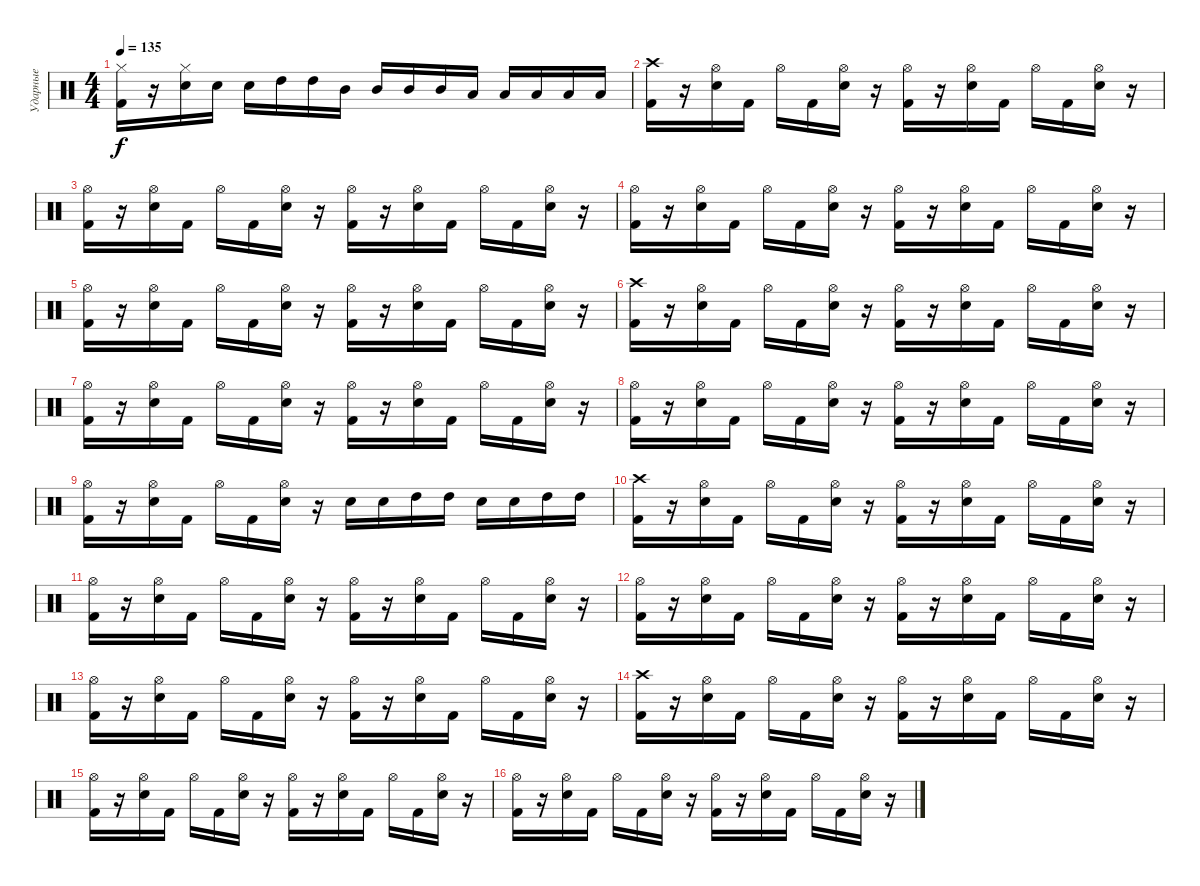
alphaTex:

\track ("Ударные" "Ударные") {instrument percussion}
\staff {score}
\articulation defaults
\ts (4 4)
\tempo 135
\clef neutral
\ks c
("Hi-Hat (closed)" "Kick (hit) 2").16{dy f} r.16 ("Hi-Hat (closed)" "Electric Snare (hit)").16 "Electric Snare (hit)".16 "Electric Snare (hit)".16 "High Tom (hit)".16 "High Tom (hit)".16 "Mid Tom (hit)".16 "Mid Tom (hit)".16 "Mid Tom (hit)".16 "Mid Tom (hit)".16 "Low Tom (hit)".16 "Low Tom (hit)".16 "Low Tom (hit)".16 "Low Tom (hit)".16 "Low Tom (hit)".16 |
("Crash high (hit)" "Kick (hit) 2").16 r.16 ("Hi-Hat (open)" "Electric Snare (hit)").16 "Kick (hit) 2".16 "Hi-Hat (open)".16 "Kick (hit) 2".16 ("Hi-Hat (open)" "Electric Snare (hit)").16 r.16 ("Hi-Hat (open)" "Kick (hit) 2").16 r.16 ("Hi-Hat (open)" "Electric Snare (hit)").16 "Kick (hit) 2".16 "Hi-Hat (open)".16 "Kick (hit) 2".16 ("Hi-Hat (open)" "Electric Snare (hit)").16 r.16 |
("Hi-Hat (open)" "Kick (hit) 2").16 r.16 ("Hi-Hat (open)" "Electric Snare (hit)").16 "Kick (hit) 2".16 "Hi-Hat (open)".16 "Kick (hit) 2".16 ("Hi-Hat (open)" "Electric Snare (hit)").16 r.16 ("Hi-Hat (open)" "Kick (hit) 2").16 r.16 ("Hi-Hat (open)" "Electric Snare (hit)").16 "Kick (hit) 2".16 "Hi-Hat (open)".16 "Kick (hit) 2".16 ("Hi-Hat (open)" "Electric Snare (hit)").16 r.16 |
("Hi-Hat (open)" "Kick (hit) 2").16 r.16 ("Hi-Hat (open)" "Electric Snare (hit)").16 "Kick (hit) 2".16 "Hi-Hat (open)".16 "Kick (hit) 2".16 ("Hi-Hat (open)" "Electric Snare (hit)").16 r.16 ("Hi-Hat (open)" "Kick (hit) 2").16 r.16 ("Hi-Hat (open)" "Electric Snare (hit)").16 "Kick (hit) 2".16 "Hi-Hat (open)".16 "Kick (hit) 2".16 ("Hi-Hat (open)" "Electric Snare (hit)").16 r.16 |
("Hi-Hat (open)" "Kick (hit) 2").16 r.16 ("Hi-Hat (open)" "Electric Snare (hit)").16 "Kick (hit) 2".16 "Hi-Hat (open)".16 "Kick (hit) 2".16 ("Hi-Hat (open)" "Electric Snare (hit)").16 r.16 ("Hi-Hat (open)" "Kick (hit) 2").16 r.16 ("Hi-Hat (open)" "Electric Snare (hit)").16 "Kick (hit) 2".16 "Hi-Hat (open)".16 "Kick (hit) 2".16 ("Hi-Hat (open)" "Electric Snare (hit)").16 r.16 |
("Crash high (hit)" "Kick (hit) 2").16 r.16 ("Hi-Hat (open)" "Electric Snare (hit)").16 "Kick (hit) 2".16 "Hi-Hat (open)".16 "Kick (hit) 2".16 ("Hi-Hat (open)" "Electric Snare (hit)").16 r.16 ("Hi-Hat (open)" "Kick (hit) 2").16 r.16 ("Hi-Hat (open)" "Electric Snare (hit)").16 "Kick (hit) 2".16 "Hi-Hat (open)".16 "Kick (hit) 2".16 ("Hi-Hat (open)" "Electric Snare (hit)").16 r.16 |
("Hi-Hat (open)" "Kick (hit) 2").16 r.16 ("Hi-Hat (open)" "Electric Snare (hit)").16 "Kick (hit) 2".16 "Hi-Hat (open)".16 "Kick (hit) 2".16 ("Hi-Hat (open)" "Electric Snare (hit)").16 r.16 ("Hi-Hat (open)" "Kick (hit) 2").16 r.16 ("Hi-Hat (open)" "Electric Snare (hit)").16 "Kick (hit) 2".16 "Hi-Hat (open)".16 "Kick (hit) 2".16 ("Hi-Hat (open)" "Electric Snare (hit)").16 r.16 |
("Hi-Hat (open)" "Kick (hit) 2").16 r.16 ("Hi-Hat (open)" "Electric Snare (hit)").16 "Kick (hit) 2".16 "Hi-Hat (open)".16 "Kick (hit) 2".16 ("Hi-Hat (open)" "Electric Snare (hit)").16 r.16 ("Hi-Hat (open)" "Kick (hit) 2").16 r.16 ("Hi-Hat (open)" "Electric Snare (hit)").16 "Kick (hit) 2".16 "Hi-Hat (open)".16 "Kick (hit) 2".16 ("Hi-Hat (open)" "Electric Snare (hit)").16 r.16 |
("Hi-Hat (open)" "Kick (hit) 2").16 r.16 ("Hi-Hat (open)" "Electric Snare (hit)").16 "Kick (hit) 2".16 "Hi-Hat (open)".16 "Kick (hit) 2".16 ("Hi-Hat (open)" "Electric Snare (hit)").16 r.16 "Electric Snare (hit)".16 "Electric Snare (hit)".16 "High Tom (hit)".16 "High Tom (hit)".16 "Electric Snare (hit)".16 "Electric Snare (hit)".16 "High Tom (hit)".16 "High Tom (hit)".16 |
("Crash high (hit)" "Kick (hit) 2").16 r.16 ("Hi-Hat (open)" "Electric Snare (hit)").16 "Kick (hit) 2".16 "Hi-Hat (open)".16 "Kick (hit) 2".16 ("Hi-Hat (open)" "Electric Snare (hit)").16 r.16 ("Hi-Hat (open)" "Kick (hit) 2").16 r.16 ("Hi-Hat (open)" "Electric Snare (hit)").16 "Kick (hit) 2".16 "Hi-Hat (open)".16 "Kick (hit) 2".16 ("Hi-Hat (open)" "Electric Snare (hit)").16 r.16 |
("Hi-Hat (open)" "Kick (hit) 2").16 r.16 ("Hi-Hat (open)" "Electric Snare (hit)").16 "Kick (hit) 2".16 "Hi-Hat (open)".16 "Kick (hit) 2".16 ("Hi-Hat (open)" "Electric Snare (hit)").16 r.16 ("Hi-Hat (open)" "Kick (hit) 2").16 r.16 ("Hi-Hat (open)" "Electric Snare (hit)").16 "Kick (hit) 2".16 "Hi-Hat (open)".16 "Kick (hit) 2".16 ("Hi-Hat (open)" "Electric Snare (hit)").16 r.16 |
("Hi-Hat (open)" "Kick (hit) 2").16 r.16 ("Hi-Hat (open)" "Electric Snare (hit)").16 "Kick (hit) 2".16 "Hi-Hat (open)".16 "Kick (hit) 2".16 ("Hi-Hat (open)" "Electric Snare (hit)").16 r.16 ("Hi-Hat (open)" "Kick (hit) 2").16 r.16 ("Hi-Hat (open)" "Electric Snare (hit)").16 "Kick (hit) 2".16 "Hi-Hat (open)".16 "Kick (hit) 2".16 ("Hi-Hat (open)" "Electric Snare (hit)").16 r.16 |
("Hi-Hat (open)" "Kick (hit) 2").16 r.16 ("Hi-Hat (open)" "Electric Snare (hit)").16 "Kick (hit) 2".16 "Hi-Hat (open)".16 "Kick (hit) 2".16 ("Hi-Hat (open)" "Electric Snare (hit)").16 r.16 ("Hi-Hat (open)" "Kick (hit) 2").16 r.16 ("Hi-Hat (open)" "Electric Snare (hit)").16 "Kick (hit) 2".16 "Hi-Hat (open)".16 "Kick (hit) 2".16 ("Hi-Hat (open)" "Electric Snare (hit)").16 r.16 |
("Crash high (hit)" "Kick (hit) 2").16 r.16 ("Hi-Hat (open)" "Electric Snare (hit)").16 "Kick (hit) 2".16 "Hi-Hat (open)".16 "Kick (hit) 2".16 ("Hi-Hat (open)" "Electric Snare (hit)").16 r.16 ("Hi-Hat (open)" "Kick (hit) 2").16 r.16 ("Hi-Hat (open)" "Electric Snare (hit)").16 "Kick (hit) 2".16 "Hi-Hat (open)".16 "Kick (hit) 2".16 ("Hi-Hat (open)" "Electric Snare (hit)").16 r.16 |
("Hi-Hat (open)" "Kick (hit) 2").16 r.16 ("Hi-Hat (open)" "Electric Snare (hit)").16 "Kick (hit) 2".16 "Hi-Hat (open)".16 "Kick (hit) 2".16 ("Hi-Hat (open)" "Electric Snare (hit)").16 r.16 ("Hi-Hat (open)" "Kick (hit) 2").16 r.16 ("Hi-Hat (open)" "Electric Snare (hit)").16 "Kick (hit) 2".16 "Hi-Hat (open)".16 "Kick (hit) 2".16 ("Hi-Hat (open)" "Electric Snare (hit)").16 r.16 |
("Hi-Hat (open)" "Kick (hit) 2").16 r.16 ("Hi-Hat (open)" "Electric Snare (hit)").16 "Kick (hit) 2".16 "Hi-Hat (open)".16 "Kick (hit) 2".16 ("Hi-Hat (open)" "Electric Snare (hit)").16 r.16 ("Hi-Hat (open)" "Kick (hit) 2").16 r.16 ("Hi-Hat (open)" "Electric Snare (hit)").16 "Kick (hit) 2".16 "Hi-Hat (open)".16 "Kick (hit) 2".16 ("Hi-Hat (open)" "Electric Snare (hit)").16 r.16
